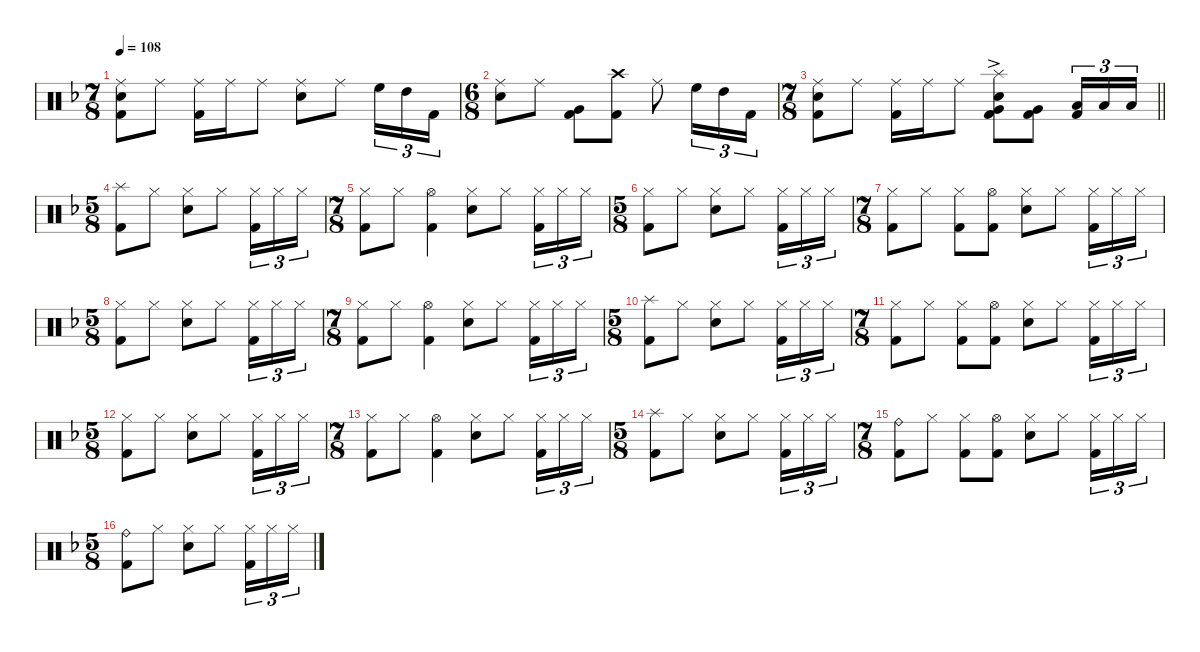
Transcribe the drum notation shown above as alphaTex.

\defaultSystemsLayout 4
\hideDynamics
\bracketExtendMode nobrackets
\singleTrackTrackNamePolicy hidden
\multiTrackTrackNamePolicy hidden
\firstSystemTrackNameMode fullname
\firstSystemTrackNameOrientation horizontal
\otherSystemsTrackNameOrientation horizontal
\track ("Danny Carey" "drm.") {defaultSystemsLayout 4 instrument percussion}
\staff {score}
\articulation defaults
\ts (7 8)
\beaming (8 2 2 2 2)
\tempo 108
\clef neutral
\ks dminor
("Ride (middle)"{acc forcenatural} "Snare (hit) 2"{acc forcenatural} "Kick (hit) 2"{acc forcenatural}).8{dy f beam Down} "Ride (middle)"{acc forcenatural}.8{beam Down} ("Ride (middle)"{acc forcenatural} "Kick (hit) 2"{acc forcenatural}).16{beam Down} "Ride (middle)"{acc forcenatural}.16{beam Down} "Ride (middle)"{acc forcenatural}.8{beam Down} ("Ride (middle)"{acc forcenatural} "Snare (hit) 2"{acc forcenatural}).8{beam Down} "Ride (middle)"{acc forcenatural}.8{beam Down} "High Floor Tom (hit)"{acc forcenatural}.16{tu (3 2) beam Down} "High Tom (hit)"{acc forcenatural}.16{tu (3 2) beam Down} "Kick (hit) 2"{acc forcenatural}.16{tu (3 2) beam Down} |
\ts (6 8)
\beaming (8 2 2 2 2)
("Ride (middle)"{acc forcenatural} "Snare (hit) 2"{acc forcenatural}).8{beam Down} "Ride (middle)"{acc forcenatural}.8{beam Down} ("Very Low Tom (hit)"{acc forcenatural} "Kick (hit) 2"{acc forcenatural}).8{beam Down} ("Crash high (hit)"{acc forcenatural} "Kick (hit) 2"{acc forcenatural}).8{beam Down} "Ride (middle)"{acc forcenatural}.8{beam Down} "High Floor Tom (hit)"{acc forcenatural}.16{tu (3 2) beam Down} "High Tom (hit)"{acc forcenatural}.16{tu (3 2) beam Down} "Kick (hit) 2"{acc forcenatural}.16{tu (3 2) beam Down} |
\ts (7 8)
\beaming (8 2 2 2 2)
\barLineRight lightlight
("Ride (middle)"{acc forcenatural} "Snare (hit) 2"{acc forcenatural} "Kick (hit) 2"{acc forcenatural}).8{beam Down} "Ride (middle)"{acc forcenatural}.8{beam Down} ("Ride (middle)"{acc forcenatural} "Kick (hit) 2"{acc forcenatural}).16{beam Down} "Ride (middle)"{acc forcenatural}.16{beam Down} "Ride (middle)"{acc forcenatural}.8{beam Down} ("Splash (hit)"{acc forcenatural} "Very Low Tom (hit)"{acc forcenatural} "Snare (hit) 2"{acc forcenatural} "Kick (hit) 2"{ac acc forcenatural}).8{beam Down} ("Very Low Tom (hit)"{acc forcenatural} "Kick (hit) 2"{acc forcenatural}).8{beam Down} ("Low Floor Tom (hit)"{acc forcenatural} "Kick (hit) 2"{acc forcenatural}).16{tu (3 2) beam Up} "Low Floor Tom (hit)"{acc forcenatural}.16{tu (3 2) beam Up} "Low Floor Tom (hit)"{acc forcenatural}.16{tu (3 2) beam Up} |
\ts (5 8)
\beaming (8 2 2 2 2)
("Splash (hit)"{acc forcenatural} "Kick (hit) 2"{acc forcenatural}).8{beam Down} "Hi-Hat (closed)"{acc forcenatural}.8{beam Down} ("Hi-Hat (closed)"{acc forcenatural} "Snare (hit) 2"{acc forcenatural}).8{beam Down} "Hi-Hat (closed)"{acc forcenatural}.8{beam Down} ("Hi-Hat (closed)"{acc forcenatural} "Kick (hit) 2"{acc forcenatural}).16{tu (3 2) beam Down} "Hi-Hat (closed)"{acc forcenatural}.16{tu (3 2) beam Down} "Hi-Hat (closed)"{acc forcenatural}.16{tu (3 2) beam Down} |
\ts (7 8)
\beaming (8 2 2 2 2)
("Hi-Hat (closed)"{acc forcenatural} "Kick (hit) 2"{acc forcenatural}).8{beam Down} "Hi-Hat (closed)"{acc forcenatural}.8{beam Down} ("Hi-Hat (open)"{acc forcenatural} "Kick (hit) 2"{acc forcenatural}).4{beam Down} ("Hi-Hat (closed)"{acc forcenatural} "Snare (hit) 2"{acc forcenatural}).8{beam Down} "Hi-Hat (closed)"{acc forcenatural}.8{beam Down} ("Hi-Hat (closed)"{acc forcenatural} "Kick (hit) 2"{acc forcenatural}).16{tu (3 2) beam Down} "Hi-Hat (closed)"{acc forcenatural}.16{tu (3 2) beam Down} "Hi-Hat (closed)"{acc forcenatural}.16{tu (3 2) beam Down} |
\ts (5 8)
\beaming (8 2 2 2 2)
("Hi-Hat (closed)"{acc forcenatural} "Kick (hit) 2"{acc forcenatural}).8{beam Down} "Hi-Hat (closed)"{acc forcenatural}.8{beam Down} ("Hi-Hat (closed)"{acc forcenatural} "Snare (hit) 2"{acc forcenatural}).8{beam Down} "Hi-Hat (closed)"{acc forcenatural}.8{beam Down} ("Hi-Hat (closed)"{acc forcenatural} "Kick (hit) 2"{acc forcenatural}).16{tu (3 2) beam Down} "Hi-Hat (closed)"{acc forcenatural}.16{tu (3 2) beam Down} "Hi-Hat (closed)"{acc forcenatural}.16{tu (3 2) beam Down} |
\ts (7 8)
\beaming (8 2 2 2 2)
("Hi-Hat (closed)"{acc forcenatural} "Kick (hit) 2"{acc forcenatural}).8{beam Down} "Hi-Hat (closed)"{acc forcenatural}.8{beam Down} ("Hi-Hat (closed)"{acc forcenatural} "Kick (hit) 2"{acc forcenatural}).8{beam Down} ("Hi-Hat (open)"{acc forcenatural} "Kick (hit) 2"{acc forcenatural}).8{beam Down} ("Hi-Hat (closed)"{acc forcenatural} "Snare (hit) 2"{acc forcenatural}).8{beam Down} "Hi-Hat (closed)"{acc forcenatural}.8{beam Down} ("Hi-Hat (closed)"{acc forcenatural} "Kick (hit) 2"{acc forcenatural}).16{tu (3 2) beam Down} "Hi-Hat (closed)"{acc forcenatural}.16{tu (3 2) beam Down} "Hi-Hat (closed)"{acc forcenatural}.16{tu (3 2) beam Down} |
\ts (5 8)
\beaming (8 2 2 2 2)
("Hi-Hat (closed)"{acc forcenatural} "Kick (hit) 2"{acc forcenatural}).8{beam Down} "Hi-Hat (closed)"{acc forcenatural}.8{beam Down} ("Hi-Hat (closed)"{acc forcenatural} "Snare (hit) 2"{acc forcenatural}).8{beam Down} "Hi-Hat (closed)"{acc forcenatural}.8{beam Down} ("Hi-Hat (closed)"{acc forcenatural} "Kick (hit) 2"{acc forcenatural}).16{tu (3 2) beam Down} "Hi-Hat (closed)"{acc forcenatural}.16{tu (3 2) beam Down} "Hi-Hat (closed)"{acc forcenatural}.16{tu (3 2) beam Down} |
\ts (7 8)
\beaming (8 2 2 2 2)
("Hi-Hat (closed)"{acc forcenatural} "Kick (hit) 2"{acc forcenatural}).8{beam Down} "Hi-Hat (closed)"{acc forcenatural}.8{beam Down} ("Hi-Hat (open)"{acc forcenatural} "Kick (hit) 2"{acc forcenatural}).4{beam Down} ("Hi-Hat (closed)"{acc forcenatural} "Snare (hit) 2"{acc forcenatural}).8{beam Down} "Hi-Hat (closed)"{acc forcenatural}.8{beam Down} ("Hi-Hat (closed)"{acc forcenatural} "Kick (hit) 2"{acc forcenatural}).16{tu (3 2) beam Down} "Hi-Hat (closed)"{acc forcenatural}.16{tu (3 2) beam Down} "Hi-Hat (closed)"{acc forcenatural}.16{tu (3 2) beam Down} |
\ts (5 8)
\beaming (8 2 2 2 2)
("Splash (hit)"{acc forcenatural} "Kick (hit) 2"{acc forcenatural}).8{beam Down} "Hi-Hat (closed)"{acc forcenatural}.8{beam Down} ("Hi-Hat (closed)"{acc forcenatural} "Snare (hit) 2"{acc forcenatural}).8{beam Down} "Hi-Hat (closed)"{acc forcenatural}.8{beam Down} ("Hi-Hat (closed)"{acc forcenatural} "Kick (hit) 2"{acc forcenatural}).16{tu (3 2) beam Down} "Hi-Hat (closed)"{acc forcenatural}.16{tu (3 2) beam Down} "Hi-Hat (closed)"{acc forcenatural}.16{tu (3 2) beam Down} |
\ts (7 8)
\beaming (8 2 2 2 2)
("Hi-Hat (closed)"{acc forcenatural} "Kick (hit) 2"{acc forcenatural}).8{beam Down} "Hi-Hat (closed)"{acc forcenatural}.8{beam Down} ("Hi-Hat (closed)"{acc forcenatural} "Kick (hit) 2"{acc forcenatural}).8{beam Down} ("Hi-Hat (open)"{acc forcenatural} "Kick (hit) 2"{acc forcenatural}).8{beam Down} ("Hi-Hat (closed)"{acc forcenatural} "Snare (hit) 2"{acc forcenatural}).8{beam Down} "Hi-Hat (closed)"{acc forcenatural}.8{beam Down} ("Hi-Hat (closed)"{acc forcenatural} "Kick (hit) 2"{acc forcenatural}).16{tu (3 2) beam Down} "Hi-Hat (closed)"{acc forcenatural}.16{tu (3 2) beam Down} "Hi-Hat (closed)"{acc forcenatural}.16{tu (3 2) beam Down} |
\ts (5 8)
\beaming (8 2 2 2 2)
("Hi-Hat (closed)"{acc forcenatural} "Kick (hit) 2"{acc forcenatural}).8{beam Down} "Hi-Hat (closed)"{acc forcenatural}.8{beam Down} ("Hi-Hat (closed)"{acc forcenatural} "Snare (hit) 2"{acc forcenatural}).8{beam Down} "Hi-Hat (closed)"{acc forcenatural}.8{beam Down} ("Hi-Hat (closed)"{acc forcenatural} "Kick (hit) 2"{acc forcenatural}).16{tu (3 2) beam Down} "Hi-Hat (closed)"{acc forcenatural}.16{tu (3 2) beam Down} "Hi-Hat (closed)"{acc forcenatural}.16{tu (3 2) beam Down} |
\ts (7 8)
\beaming (8 2 2 2 2)
("Hi-Hat (closed)"{acc forcenatural} "Kick (hit) 2"{acc forcenatural}).8{beam Down} "Hi-Hat (closed)"{acc forcenatural}.8{beam Down} ("Hi-Hat (open)"{acc forcenatural} "Kick (hit) 2"{acc forcenatural}).4{beam Down} ("Hi-Hat (closed)"{acc forcenatural} "Snare (hit) 2"{acc forcenatural}).8{beam Down} "Hi-Hat (closed)"{acc forcenatural}.8{beam Down} ("Hi-Hat (closed)"{acc forcenatural} "Kick (hit) 2"{acc forcenatural}).16{tu (3 2) beam Down} "Hi-Hat (closed)"{acc forcenatural}.16{tu (3 2) beam Down} "Hi-Hat (closed)"{acc forcenatural}.16{tu (3 2) beam Down} |
\ts (5 8)
\beaming (8 2 2 2 2)
("Splash (hit)"{acc forcenatural} "Kick (hit) 2"{acc forcenatural}).8{beam Down} "Hi-Hat (closed)"{acc forcenatural}.8{beam Down} ("Hi-Hat (closed)"{acc forcenatural} "Snare (hit) 2"{acc forcenatural}).8{beam Down} "Hi-Hat (closed)"{acc forcenatural}.8{beam Down} ("Hi-Hat (closed)"{acc forcenatural} "Kick (hit) 2"{acc forcenatural}).16{tu (3 2) beam Down} "Hi-Hat (closed)"{acc forcenatural}.16{tu (3 2) beam Down} "Hi-Hat (closed)"{acc forcenatural}.16{tu (3 2) beam Down} |
\ts (7 8)
\beaming (8 2 2 2 2)
("Ride (bell)"{acc forcenatural} "Kick (hit) 2"{acc forcenatural}).8{beam Down} "Hi-Hat (closed)"{acc forcenatural}.8{beam Down} ("Hi-Hat (closed)"{acc forcenatural} "Kick (hit) 2"{acc forcenatural}).8{beam Down} ("Hi-Hat (open)"{acc forcenatural} "Kick (hit) 2"{acc forcenatural}).8{beam Down} ("Hi-Hat (closed)"{acc forcenatural} "Snare (hit) 2"{acc forcenatural}).8{beam Down} "Hi-Hat (closed)"{acc forcenatural}.8{beam Down} ("Hi-Hat (closed)"{acc forcenatural} "Kick (hit) 2"{acc forcenatural}).16{tu (3 2) beam Down} "Hi-Hat (closed)"{acc forcenatural}.16{tu (3 2) beam Down} "Hi-Hat (closed)"{acc forcenatural}.16{tu (3 2) beam Down} |
\ts (5 8)
\beaming (8 2 2 2 2)
("Ride (bell)"{acc forcenatural} "Kick (hit) 2"{acc forcenatural}).8{beam Down} "Hi-Hat (closed)"{acc forcenatural}.8{beam Down} ("Hi-Hat (closed)"{acc forcenatural} "Snare (hit) 2"{acc forcenatural}).8{beam Down} "Hi-Hat (closed)"{acc forcenatural}.8{beam Down} ("Hi-Hat (closed)"{acc forcenatural} "Kick (hit) 2"{acc forcenatural}).16{tu (3 2) beam Down} "Hi-Hat (closed)"{acc forcenatural}.16{tu (3 2) beam Down} "Hi-Hat (closed)"{acc forcenatural}.16{tu (3 2) beam Down}
